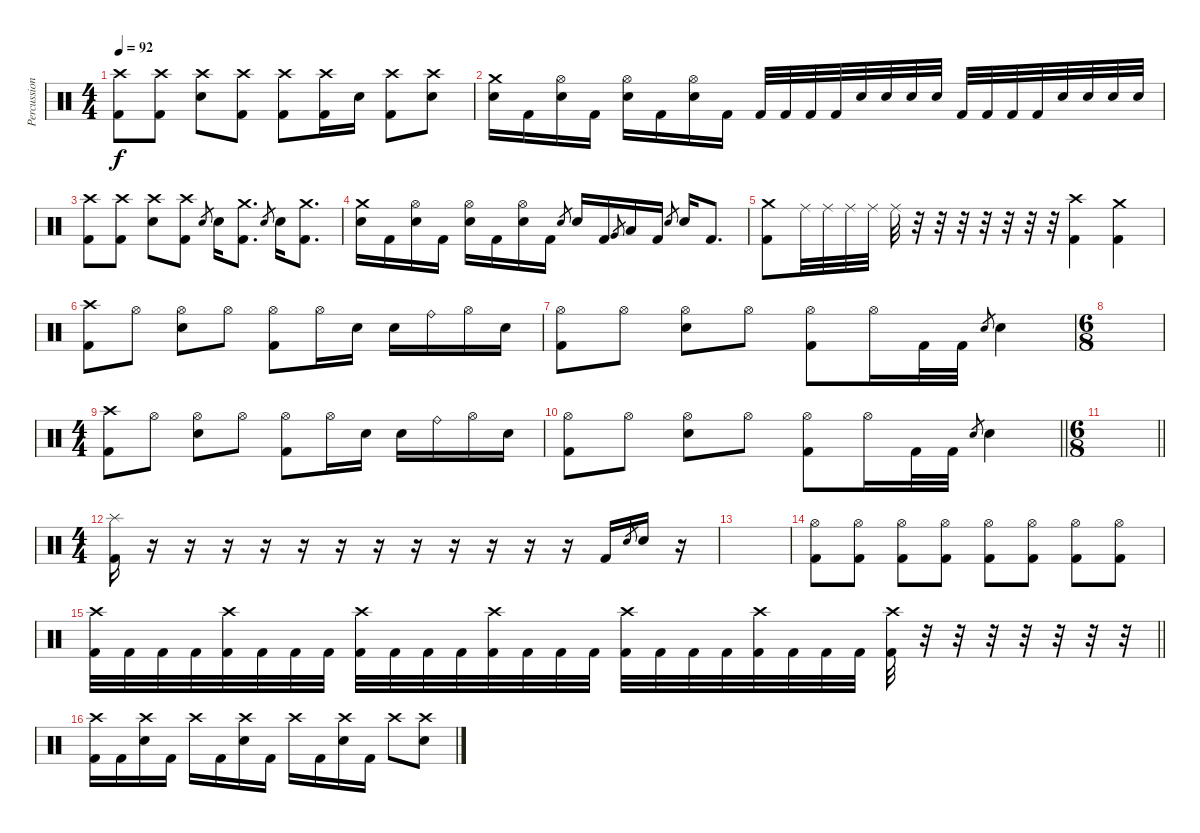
\track ("Percussion (Moose)" "Percussion") {instrument percussion}
\staff {score}
\articulation defaults
\ts (4 4)
\tempo 92
\clef neutral
\ks c
("Crash high (hit)" "Kick (hit) 2").8{dy f} ("Crash high (hit)" "Kick (hit) 2").8 ("Crash high (hit)" "Electric Snare (hit)").8 ("Crash high (hit)" "Kick (hit) 2").8 ("Crash high (hit)" "Kick (hit) 2").8 ("Crash high (hit)" "Kick (hit) 2").16 "Electric Snare (hit)".16 ("Crash high (hit)" "Kick (hit) 2").8 ("Crash high (hit)" "Electric Snare (hit)").8 |
("Crash medium (hit)" "Electric Snare (hit)").16 "Kick (hit) 2".16 ("Hi-Hat (open)" "Electric Snare (hit)").16 "Kick (hit) 2".16 ("Hi-Hat (open)" "Electric Snare (hit)").16 "Kick (hit) 2".16 ("Hi-Hat (open)" "Electric Snare (hit)").16 "Kick (hit) 2".16 "Kick (hit) 2".32 "Kick (hit) 2".32 "Kick (hit) 2".32 "Kick (hit) 2".32 "Electric Snare (hit)".32 "Electric Snare (hit)".32 "Electric Snare (hit)".32 "Electric Snare (hit)".32 "Kick (hit) 2".32 "Kick (hit) 2".32 "Kick (hit) 2".32 "Kick (hit) 2".32 "Electric Snare (hit)".32 "Electric Snare (hit)".32 "Electric Snare (hit)".32 "Electric Snare (hit)".32 |
("Crash high (hit)" "Kick (hit) 2").8 ("Crash high (hit)" "Kick (hit) 2").8 ("Crash high (hit)" "Electric Snare (hit)").8 ("Crash high (hit)" "Kick (hit) 2").8 "Electric Snare (hit)".8{gr} "Electric Snare (hit)".16 ("Crash medium (hit)" "Kick (hit) 2").8{d} "Electric Snare (hit)".8{gr} "Electric Snare (hit)".16 ("Crash medium (hit)" "Kick (hit) 2").8{d} |
("Crash medium (hit)" "Electric Snare (hit)").16 "Kick (hit) 2".16 ("Hi-Hat (open)" "Electric Snare (hit)").16 "Kick (hit) 2".16 ("Hi-Hat (open)" "Electric Snare (hit)").16 "Kick (hit) 2".16 ("Hi-Hat (open)" "Electric Snare (hit)").16 "Kick (hit) 2".16 "Electric Snare (hit)".8{gr} "Electric Snare (hit)".16 "Kick (hit) 2".16 "Very Low Tom (hit)".8{gr} "Low Floor Tom (hit)".16 "Kick (hit) 2".16 "Electric Snare (hit)".8{gr} "Electric Snare (hit)".16 "Kick (hit) 2".8{d} |
("Crash medium (hit)" "Kick (hit) 2").8 "Ride (middle)".32 "Ride (middle)".32 "Ride (middle)".32 "Ride (middle)".32 "Ride (middle)".32 r.32 r.32 r.32 r.32 r.32 r.32 r.32 ("Crash high (hit)" "Kick (hit) 2").4 ("Crash medium (hit)" "Kick (hit) 2").4 |
("Crash high (hit)" "Kick (hit) 2").8 "Hi-Hat (open)".8 ("Hi-Hat (open)" "Electric Snare (hit)").8 "Hi-Hat (open)".8 ("Hi-Hat (open)" "Kick (hit) 2").8 "Hi-Hat (open)".16 "Electric Snare (hit)".16 "Electric Snare (hit)".16 "Ride (bell)".16 "Hi-Hat (open)".16 "Electric Snare (hit)".16 |
("Hi-Hat (open)" "Kick (hit) 2").8 "Hi-Hat (open)".8 ("Hi-Hat (open)" "Electric Snare (hit)").8 "Hi-Hat (open)".8 ("Hi-Hat (open)" "Kick (hit) 2").8 "Hi-Hat (open)".16 "Kick (hit) 2".32 "Kick (hit) 2".32 "Electric Snare (hit)".8{gr} "Electric Snare (hit)".4 |
\ts (6 8)
|
\ts (4 4)
("Crash high (hit)" "Kick (hit) 2").8 "Hi-Hat (open)".8 ("Hi-Hat (open)" "Electric Snare (hit)").8 "Hi-Hat (open)".8 ("Hi-Hat (open)" "Kick (hit) 2").8 "Hi-Hat (open)".16 "Electric Snare (hit)".16 "Electric Snare (hit)".16 "Ride (bell)".16 "Hi-Hat (open)".16 "Electric Snare (hit)".16 |
\barLineRight lightlight
("Hi-Hat (open)" "Kick (hit) 2").8 "Hi-Hat (open)".8 ("Hi-Hat (open)" "Electric Snare (hit)").8 "Hi-Hat (open)".8 ("Hi-Hat (open)" "Kick (hit) 2").8 "Hi-Hat (open)".16 "Kick (hit) 2".32 "Kick (hit) 2".32 "Electric Snare (hit)".8{gr} "Electric Snare (hit)".4 |
\ts (6 8)
\barLineRight lightlight
|
\ts (4 4)
("Splash (hit)" "Kick (hit) 2").16 r.16 r.16 r.16 r.16 r.16 r.16 r.16 r.16 r.16 r.16 r.16 r.16 "Kick (hit) 2".16 "Electric Snare (hit)".8{gr} "Electric Snare (hit)".16 r.16 |
|
("Hi-Hat (open)" "Kick (hit) 2").8 ("Hi-Hat (open)" "Kick (hit) 2").8 ("Hi-Hat (open)" "Kick (hit) 2").8 ("Hi-Hat (open)" "Kick (hit) 2").8 ("Hi-Hat (open)" "Kick (hit) 2").8 ("Hi-Hat (open)" "Kick (hit) 2").8 ("Hi-Hat (open)" "Kick (hit) 2").8 ("Hi-Hat (open)" "Kick (hit) 2").8 |
\barLineRight lightlight
("Crash high (hit)" "Kick (hit) 2").32 "Kick (hit) 2".32 "Kick (hit) 2".32 "Kick (hit) 2".32 ("Crash high (hit)" "Kick (hit) 2").32 "Kick (hit) 2".32 "Kick (hit) 2".32 "Kick (hit) 2".32 ("Crash high (hit)" "Kick (hit) 2").32 "Kick (hit) 2".32 "Kick (hit) 2".32 "Kick (hit) 2".32 ("Crash high (hit)" "Kick (hit) 2").32 "Kick (hit) 2".32 "Kick (hit) 2".32 "Kick (hit) 2".32 ("Crash high (hit)" "Kick (hit) 2").32 "Kick (hit) 2".32 "Kick (hit) 2".32 "Kick (hit) 2".32 ("Crash high (hit)" "Kick (hit) 2").32 "Kick (hit) 2".32 "Kick (hit) 2".32 "Kick (hit) 2".32 ("Crash high (hit)" "Kick (hit) 2").32 r.32 r.32 r.32 r.32 r.32 r.32 r.32 |
("Crash high (hit)" "Kick (hit) 2").16 "Kick (hit) 2".16 ("Crash high (hit)" "Electric Snare (hit)").16 "Kick (hit) 2".16 "Crash high (hit)".16 "Kick (hit) 2".16 ("Crash high (hit)" "Electric Snare (hit)").16 "Kick (hit) 2".16 "Crash high (hit)".16 "Kick (hit) 2".16 ("Crash high (hit)" "Electric Snare (hit)").16 "Kick (hit) 2".16 "Crash high (hit)".8 ("Crash high (hit)" "Electric Snare (hit)").8
